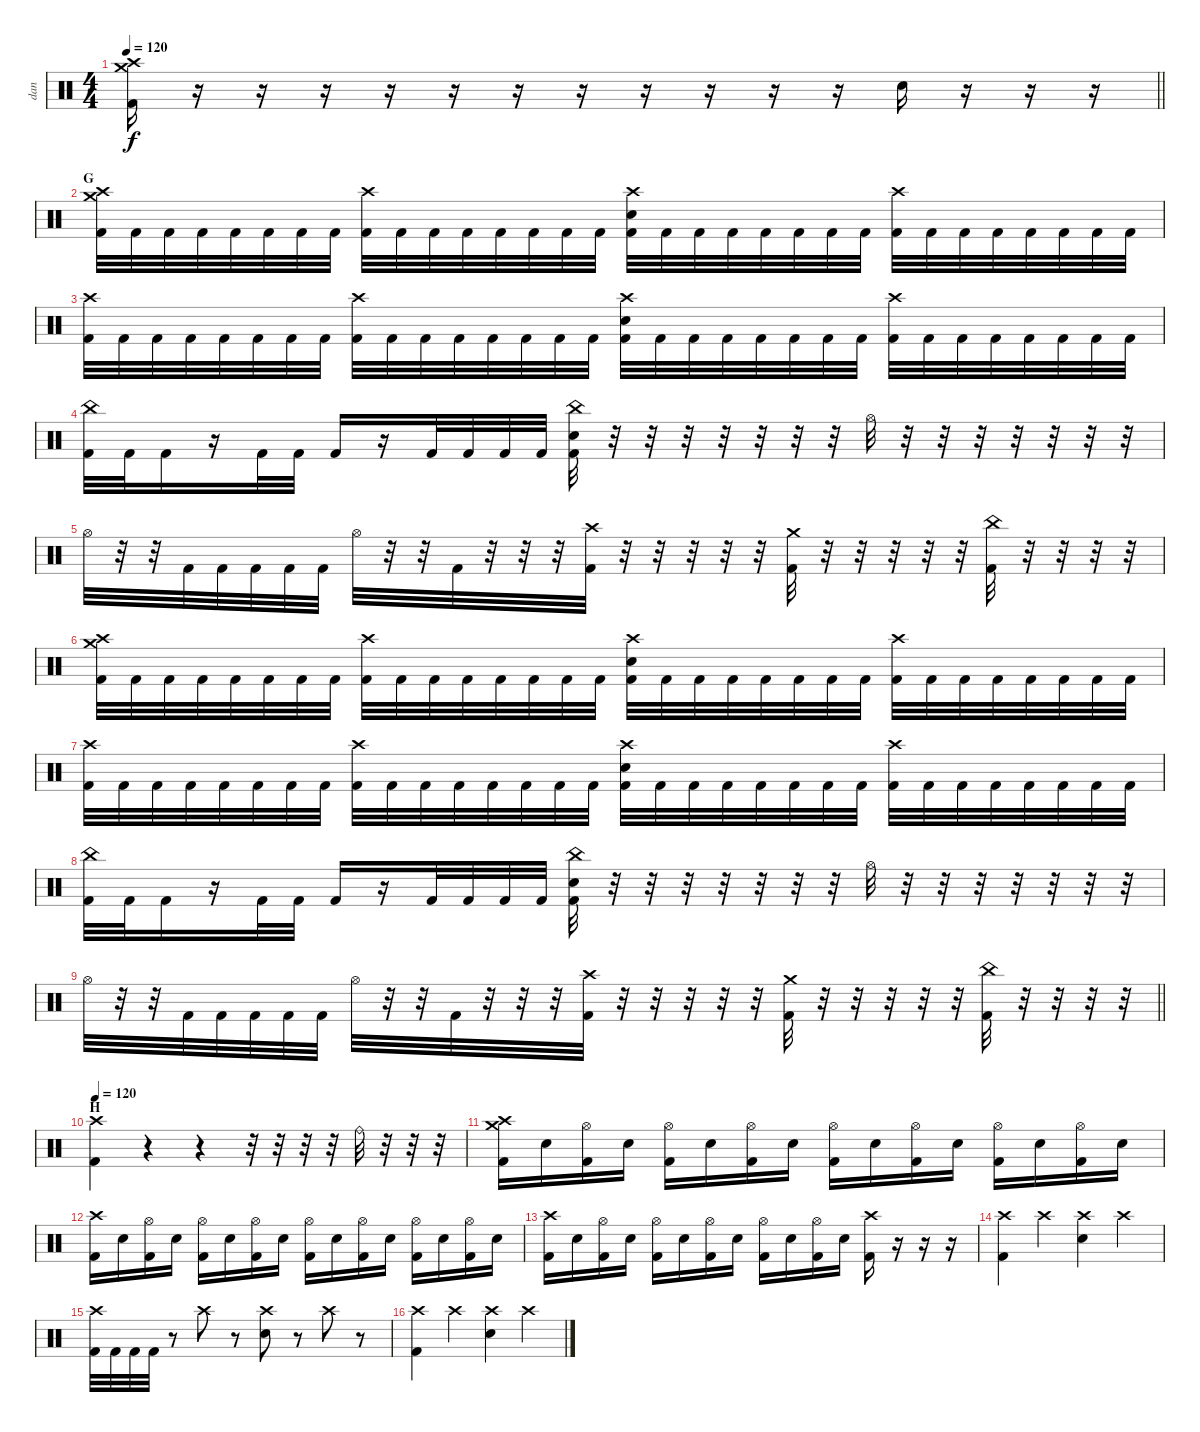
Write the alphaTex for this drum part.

\track ("dan" "dan") {instrument percussion}
\staff {score}
\articulation defaults
\ts (4 4)
\tempo 120
\clef neutral
\barLineRight lightlight
\ks c
("Crash high (hit)" "Crash medium (hit)" "Kick (hit) 2").16{dy f} r.16 r.16 r.16 r.16 r.16 r.16 r.16 r.16 r.16 r.16 r.16 "Electric Snare (hit)".16 r.16 r.16 r.16 |
\section ("" "G")
("Crash medium (hit)" "Crash high (hit)" "Kick (hit) 2").32 "Kick (hit) 2".32 "Kick (hit) 2".32 "Kick (hit) 2".32 "Kick (hit) 2".32 "Kick (hit) 2".32 "Kick (hit) 2".32 "Kick (hit) 2".32 ("Crash high (hit)" "Kick (hit) 2").32 "Kick (hit) 2".32 "Kick (hit) 2".32 "Kick (hit) 2".32 "Kick (hit) 2".32 "Kick (hit) 2".32 "Kick (hit) 2".32 "Kick (hit) 2".32 ("Crash high (hit)" "Electric Snare (hit)" "Kick (hit) 2").32 "Kick (hit) 2".32 "Kick (hit) 2".32 "Kick (hit) 2".32 "Kick (hit) 2".32 "Kick (hit) 2".32 "Kick (hit) 2".32 "Kick (hit) 2".32 ("Crash high (hit)" "Kick (hit) 2").32 "Kick (hit) 2".32 "Kick (hit) 2".32 "Kick (hit) 2".32 "Kick (hit) 2".32 "Kick (hit) 2".32 "Kick (hit) 2".32 "Kick (hit) 2".32 |
("Crash high (hit)" "Kick (hit) 2").32 "Kick (hit) 2".32 "Kick (hit) 2".32 "Kick (hit) 2".32 "Kick (hit) 2".32 "Kick (hit) 2".32 "Kick (hit) 2".32 "Kick (hit) 2".32 ("Crash high (hit)" "Kick (hit) 2").32 "Kick (hit) 2".32 "Kick (hit) 2".32 "Kick (hit) 2".32 "Kick (hit) 2".32 "Kick (hit) 2".32 "Kick (hit) 2".32 "Kick (hit) 2".32 ("Crash high (hit)" "Electric Snare (hit)" "Kick (hit) 2").32 "Kick (hit) 2".32 "Kick (hit) 2".32 "Kick (hit) 2".32 "Kick (hit) 2".32 "Kick (hit) 2".32 "Kick (hit) 2".32 "Kick (hit) 2".32 ("Crash high (hit)" "Kick (hit) 2").32 "Kick (hit) 2".32 "Kick (hit) 2".32 "Kick (hit) 2".32 "Kick (hit) 2".32 "Kick (hit) 2".32 "Kick (hit) 2".32 "Kick (hit) 2".32 |
("China (hit)" "Kick (hit) 2").32 "Kick (hit) 2".32 "Kick (hit) 2".16 r.16 "Kick (hit) 2".32 "Kick (hit) 2".32 "Kick (hit) 2".16 r.16 "Kick (hit) 2".32 "Kick (hit) 2".32 "Kick (hit) 2".32 "Kick (hit) 2".32 ("China (hit)" "Electric Snare (hit)" "Kick (hit) 2").32 r.32 r.32 r.32 r.32 r.32 r.32 r.32 "Hi-Hat (open)".32 r.32 r.32 r.32 r.32 r.32 r.32 r.32 |
"Hi-Hat (open)".32 r.32 r.32 "Kick (hit) 2".32 "Kick (hit) 2".32 "Kick (hit) 2".32 "Kick (hit) 2".32 "Kick (hit) 2".32 "Hi-Hat (open)".32 r.32 r.32 "Kick (hit) 2".32 r.32 r.32 r.32 ("Crash high (hit)" "Kick (hit) 2").32 r.32 r.32 r.32 r.32 r.32 ("Crash medium (hit)" "Kick (hit) 2").32 r.32 r.32 r.32 r.32 r.32 ("China (hit)" "Kick (hit) 2").32 r.32 r.32 r.32 r.32 |
("Crash medium (hit)" "Crash high (hit)" "Kick (hit) 2").32 "Kick (hit) 2".32 "Kick (hit) 2".32 "Kick (hit) 2".32 "Kick (hit) 2".32 "Kick (hit) 2".32 "Kick (hit) 2".32 "Kick (hit) 2".32 ("Crash high (hit)" "Kick (hit) 2").32 "Kick (hit) 2".32 "Kick (hit) 2".32 "Kick (hit) 2".32 "Kick (hit) 2".32 "Kick (hit) 2".32 "Kick (hit) 2".32 "Kick (hit) 2".32 ("Crash high (hit)" "Electric Snare (hit)" "Kick (hit) 2").32 "Kick (hit) 2".32 "Kick (hit) 2".32 "Kick (hit) 2".32 "Kick (hit) 2".32 "Kick (hit) 2".32 "Kick (hit) 2".32 "Kick (hit) 2".32 ("Crash high (hit)" "Kick (hit) 2").32 "Kick (hit) 2".32 "Kick (hit) 2".32 "Kick (hit) 2".32 "Kick (hit) 2".32 "Kick (hit) 2".32 "Kick (hit) 2".32 "Kick (hit) 2".32 |
("Crash high (hit)" "Kick (hit) 2").32 "Kick (hit) 2".32 "Kick (hit) 2".32 "Kick (hit) 2".32 "Kick (hit) 2".32 "Kick (hit) 2".32 "Kick (hit) 2".32 "Kick (hit) 2".32 ("Crash high (hit)" "Kick (hit) 2").32 "Kick (hit) 2".32 "Kick (hit) 2".32 "Kick (hit) 2".32 "Kick (hit) 2".32 "Kick (hit) 2".32 "Kick (hit) 2".32 "Kick (hit) 2".32 ("Crash high (hit)" "Electric Snare (hit)" "Kick (hit) 2").32 "Kick (hit) 2".32 "Kick (hit) 2".32 "Kick (hit) 2".32 "Kick (hit) 2".32 "Kick (hit) 2".32 "Kick (hit) 2".32 "Kick (hit) 2".32 ("Crash high (hit)" "Kick (hit) 2").32 "Kick (hit) 2".32 "Kick (hit) 2".32 "Kick (hit) 2".32 "Kick (hit) 2".32 "Kick (hit) 2".32 "Kick (hit) 2".32 "Kick (hit) 2".32 |
("China (hit)" "Kick (hit) 2").32 "Kick (hit) 2".32 "Kick (hit) 2".16 r.16 "Kick (hit) 2".32 "Kick (hit) 2".32 "Kick (hit) 2".16 r.16 "Kick (hit) 2".32 "Kick (hit) 2".32 "Kick (hit) 2".32 "Kick (hit) 2".32 ("China (hit)" "Electric Snare (hit)" "Kick (hit) 2").32 r.32 r.32 r.32 r.32 r.32 r.32 r.32 "Hi-Hat (open)".32 r.32 r.32 r.32 r.32 r.32 r.32 r.32 |
\barLineRight lightlight "Hi-Hat (open)".32
r.32 r.32 "Kick (hit) 2".32 "Kick (hit) 2".32 "Kick (hit) 2".32 "Kick (hit) 2".32 "Kick (hit) 2".32 "Hi-Hat (open)".32 r.32 r.32 "Kick (hit) 2".32 r.32 r.32 r.32 ("Crash high (hit)" "Kick (hit) 2").32 r.32 r.32 r.32 r.32 r.32 ("Crash medium (hit)" "Kick (hit) 2").32 r.32 r.32 r.32 r.32 r.32 ("China (hit)" "Kick (hit) 2").32 r.32 r.32 r.32 r.32 |
\section ("" "H")
\tempo 120
("Crash high (hit)" "Kick (hit) 2").4 r.4 r.4 r.32 r.32 r.32 r.32 "Ride (bell)".32 r.32 r.32 r.32 |
("Crash high (hit)" "Crash medium (hit)" "Kick (hit) 2").16 "Electric Snare (hit)".16 ("Hi-Hat (open)" "Kick (hit) 2").16 "Electric Snare (hit)".16 ("Hi-Hat (open)" "Kick (hit) 2").16 "Electric Snare (hit)".16 ("Hi-Hat (open)" "Kick (hit) 2").16 "Electric Snare (hit)".16 ("Hi-Hat (open)" "Kick (hit) 2").16 "Electric Snare (hit)".16 ("Hi-Hat (open)" "Kick (hit) 2").16 "Electric Snare (hit)".16 ("Hi-Hat (open)" "Kick (hit) 2").16 "Electric Snare (hit)".16 ("Hi-Hat (open)" "Kick (hit) 2").16 "Electric Snare (hit)".16 |
("Crash high (hit)" "Kick (hit) 2").16 "Electric Snare (hit)".16 ("Hi-Hat (open)" "Kick (hit) 2").16 "Electric Snare (hit)".16 ("Hi-Hat (open)" "Kick (hit) 2").16 "Electric Snare (hit)".16 ("Hi-Hat (open)" "Kick (hit) 2").16 "Electric Snare (hit)".16 ("Hi-Hat (open)" "Kick (hit) 2").16 "Electric Snare (hit)".16 ("Hi-Hat (open)" "Kick (hit) 2").16 "Electric Snare (hit)".16 ("Hi-Hat (open)" "Kick (hit) 2").16 "Electric Snare (hit)".16 ("Hi-Hat (open)" "Kick (hit) 2").16 "Electric Snare (hit)".16 |
("Crash high (hit)" "Kick (hit) 2").16 "Electric Snare (hit)".16 ("Hi-Hat (open)" "Kick (hit) 2").16 "Electric Snare (hit)".16 ("Hi-Hat (open)" "Kick (hit) 2").16 "Electric Snare (hit)".16 ("Hi-Hat (open)" "Kick (hit) 2").16 "Electric Snare (hit)".16 ("Hi-Hat (open)" "Kick (hit) 2").16 "Electric Snare (hit)".16 ("Hi-Hat (open)" "Kick (hit) 2").16 "Electric Snare (hit)".16 ("Crash high (hit)" "Kick (hit) 2").16 r.16 r.16 r.16 |
("Crash high (hit)" "Kick (hit) 2").4 "Crash high (hit)".4 ("Crash high (hit)" "Electric Snare (hit)").4 "Crash high (hit)".4 |
("Crash high (hit)" "Kick (hit) 2").32 "Kick (hit) 2".32 "Kick (hit) 2".32 "Kick (hit) 2".32 r.8 "Crash high (hit)".8 r.8 ("Crash high (hit)" "Electric Snare (hit)").8 r.8 "Crash high (hit)".8 r.8 |
("Crash high (hit)" "Kick (hit) 2").4 "Crash high (hit)".4 ("Crash high (hit)" "Electric Snare (hit)").4 "Crash high (hit)".4
